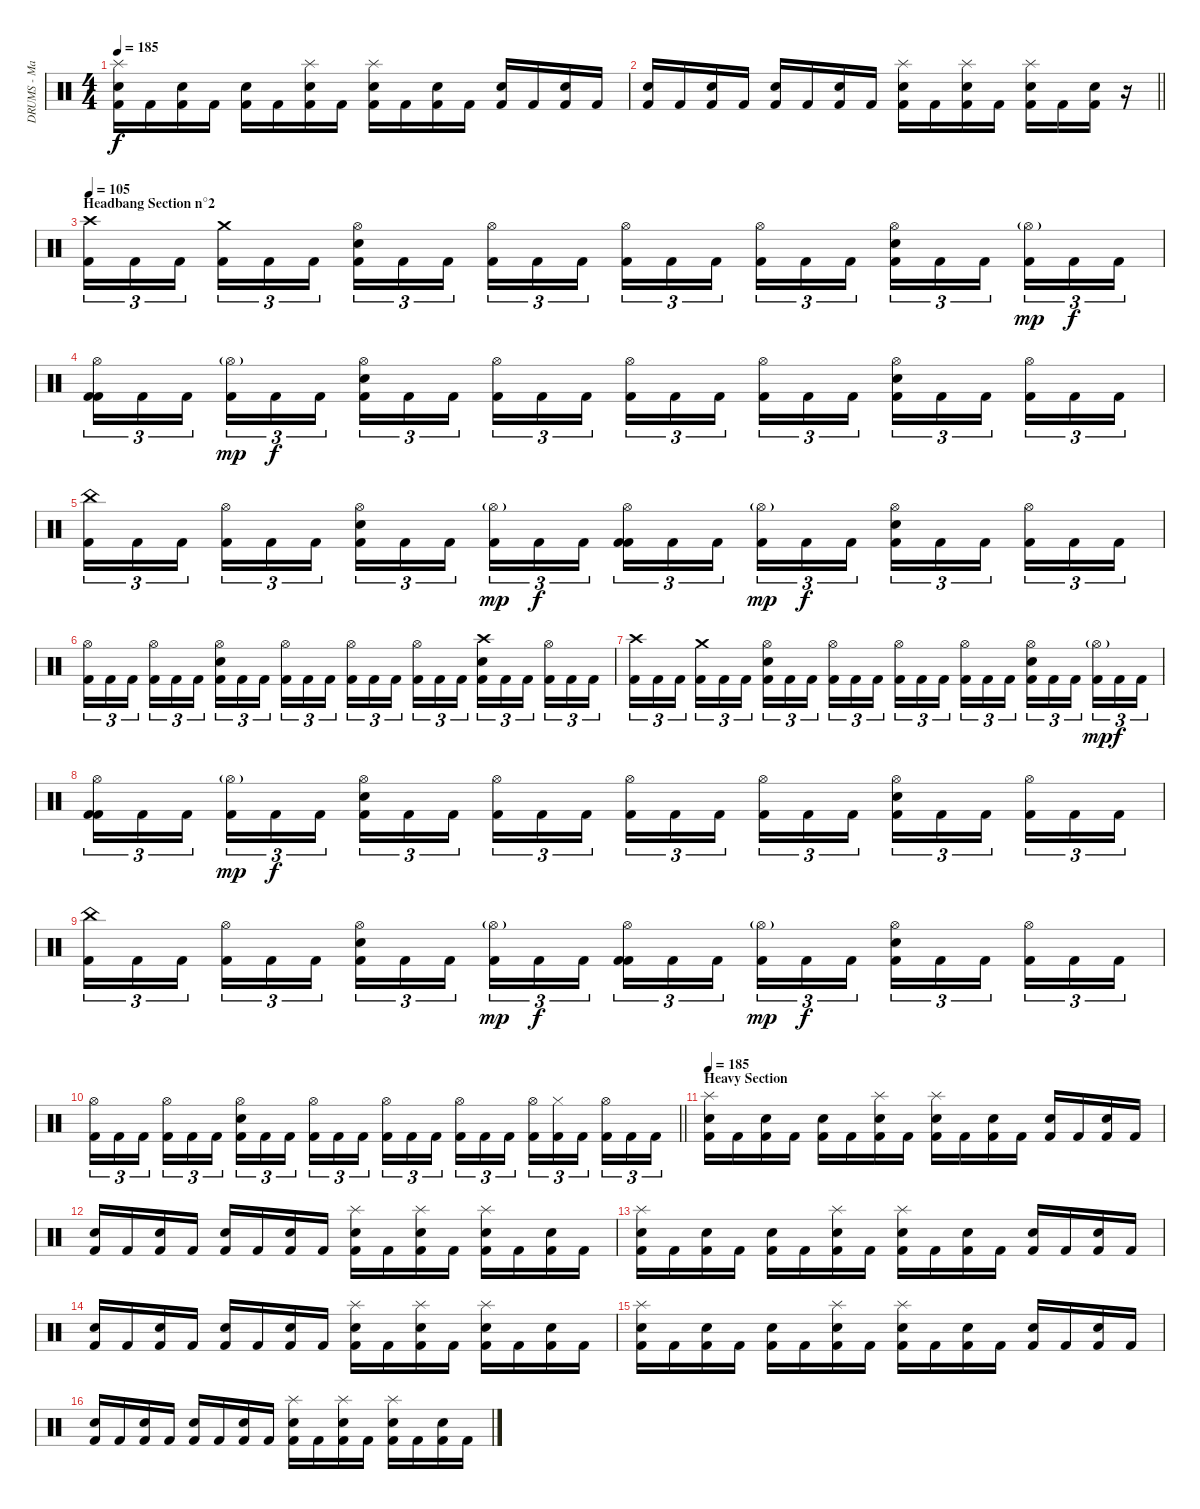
\track ("DRUMS - Mario Duplantier" "DRUMS - Ma") {instrument percussion}
\staff {score}
\articulation defaults
\ts (4 4)
\tempo 185
\clef neutral
\ks c
("Splash (hit)" "Electric Snare (hit)" "Kick (hit) 2").16{dy f} "Kick (hit) 2".16 ("Electric Snare (hit)" "Kick (hit) 2").16 "Kick (hit) 2".16 ("Electric Snare (hit)" "Kick (hit) 2").16 "Kick (hit) 2".16 ("Splash (hit)" "Electric Snare (hit)" "Kick (hit) 2").16 "Kick (hit) 2".16 ("Splash (hit)" "Electric Snare (hit)" "Kick (hit) 2").16 "Kick (hit) 2".16 ("Electric Snare (hit)" "Kick (hit) 2").16 "Kick (hit) 2".16 ("Electric Snare (hit)" "Kick (hit) 2").16 "Kick (hit) 2".16 ("Electric Snare (hit)" "Kick (hit) 2").16 "Kick (hit) 2".16 |
\barLineRight lightlight
("Electric Snare (hit)" "Kick (hit) 2").16 "Kick (hit) 2".16 ("Electric Snare (hit)" "Kick (hit) 2").16 "Kick (hit) 2".16 ("Electric Snare (hit)" "Kick (hit) 2").16 "Kick (hit) 2".16 ("Electric Snare (hit)" "Kick (hit) 2").16 "Kick (hit) 2".16 ("Splash (hit)" "Electric Snare (hit)" "Kick (hit) 2").16 "Kick (hit) 2".16 ("Splash (hit)" "Electric Snare (hit)" "Kick (hit) 2").16 "Kick (hit) 2".16 ("Splash (hit)" "Electric Snare (hit)" "Kick (hit) 2").16 "Kick (hit) 2".16 ("Electric Snare (hit)" "Kick (hit) 2").16 r.16 |
\section ("" "Headbang Section n°2")
\tempo 105
("Crash high (hit)" "Kick (hit) 2").16{tu (3 2)} "Kick (hit) 2".16{tu (3 2)} "Kick (hit) 2".16{tu (3 2) beam splitsecondary} ("Crash medium (hit)" "Kick (hit) 2").16{tu (3 2)} "Kick (hit) 2".16{tu (3 2)} "Kick (hit) 2".16{tu (3 2)} ("Hi-Hat (open)" "Electric Snare (hit)" "Kick (hit) 2").16{tu (3 2)} "Kick (hit) 2".16{tu (3 2)} "Kick (hit) 2".16{tu (3 2) beam splitsecondary} ("Hi-Hat (open)" "Kick (hit) 2").16{tu (3 2)} "Kick (hit) 2".16{tu (3 2)} "Kick (hit) 2".16{tu (3 2)} ("Hi-Hat (open)" "Kick (hit) 2").16{tu (3 2)} "Kick (hit) 2".16{tu (3 2)} "Kick (hit) 2".16{tu (3 2) beam splitsecondary} ("Hi-Hat (open)" "Kick (hit) 2").16{tu (3 2)} "Kick (hit) 2".16{tu (3 2)} "Kick (hit) 2".16{tu (3 2)} ("Hi-Hat (open)" "Electric Snare (hit)" "Kick (hit) 2").16{tu (3 2)} "Kick (hit) 2".16{tu (3 2)} "Kick (hit) 2".16{tu (3 2) beam splitsecondary} ("Hi-Hat (open)"{g} "Kick (hit) 2").16{tu (3 2) dy mp} "Kick (hit) 2".16{tu (3 2) dy f} "Kick (hit) 2".16{tu (3 2)} |
("Hi-Hat (open)" "Kick (hit) 2" "Kick (hit) 2").16{tu (3 2)} "Kick (hit) 2".16{tu (3 2)} "Kick (hit) 2".16{tu (3 2) beam splitsecondary} ("Hi-Hat (open)"{g} "Kick (hit) 2").16{tu (3 2) dy mp} "Kick (hit) 2".16{tu (3 2) dy f} "Kick (hit) 2".16{tu (3 2)} ("Hi-Hat (open)" "Electric Snare (hit)" "Kick (hit) 2").16{tu (3 2)} "Kick (hit) 2".16{tu (3 2)} "Kick (hit) 2".16{tu (3 2) beam splitsecondary} ("Hi-Hat (open)" "Kick (hit) 2").16{tu (3 2)} "Kick (hit) 2".16{tu (3 2)} "Kick (hit) 2".16{tu (3 2)} ("Hi-Hat (open)" "Kick (hit) 2").16{tu (3 2)} "Kick (hit) 2".16{tu (3 2)} "Kick (hit) 2".16{tu (3 2) beam splitsecondary} ("Hi-Hat (open)" "Kick (hit) 2").16{tu (3 2)} "Kick (hit) 2".16{tu (3 2)} "Kick (hit) 2".16{tu (3 2)} ("Hi-Hat (open)" "Electric Snare (hit)" "Kick (hit) 2").16{tu (3 2)} "Kick (hit) 2".16{tu (3 2)} "Kick (hit) 2".16{tu (3 2) beam splitsecondary} ("Hi-Hat (open)" "Kick (hit) 2").16{tu (3 2)} "Kick (hit) 2".16{tu (3 2)} "Kick (hit) 2".16{tu (3 2)} |
("China (hit)" "Kick (hit) 2").16{tu (3 2)} "Kick (hit) 2".16{tu (3 2)} "Kick (hit) 2".16{tu (3 2) beam splitsecondary} ("Hi-Hat (open)" "Kick (hit) 2").16{tu (3 2)} "Kick (hit) 2".16{tu (3 2)} "Kick (hit) 2".16{tu (3 2)} ("Hi-Hat (open)" "Electric Snare (hit)" "Kick (hit) 2").16{tu (3 2)} "Kick (hit) 2".16{tu (3 2)} "Kick (hit) 2".16{tu (3 2) beam splitsecondary} ("Hi-Hat (open)"{g} "Kick (hit) 2").16{tu (3 2) dy mp} "Kick (hit) 2".16{tu (3 2) dy f} "Kick (hit) 2".16{tu (3 2)} ("Hi-Hat (open)" "Kick (hit) 2" "Kick (hit) 2").16{tu (3 2)} "Kick (hit) 2".16{tu (3 2)} "Kick (hit) 2".16{tu (3 2) beam splitsecondary} ("Hi-Hat (open)"{g} "Kick (hit) 2").16{tu (3 2) dy mp} "Kick (hit) 2".16{tu (3 2) dy f} "Kick (hit) 2".16{tu (3 2)} ("Hi-Hat (open)" "Electric Snare (hit)" "Kick (hit) 2").16{tu (3 2)} "Kick (hit) 2".16{tu (3 2)} "Kick (hit) 2".16{tu (3 2) beam splitsecondary} ("Hi-Hat (open)" "Kick (hit) 2").16{tu (3 2)} "Kick (hit) 2".16{tu (3 2)} "Kick (hit) 2".16{tu (3 2)} |
("Hi-Hat (open)" "Kick (hit) 2").16{tu (3 2)} "Kick (hit) 2".16{tu (3 2)} "Kick (hit) 2".16{tu (3 2) beam splitsecondary} ("Hi-Hat (open)" "Kick (hit) 2").16{tu (3 2)} "Kick (hit) 2".16{tu (3 2)} "Kick (hit) 2".16{tu (3 2)} ("Hi-Hat (open)" "Electric Snare (hit)" "Kick (hit) 2").16{tu (3 2)} "Kick (hit) 2".16{tu (3 2)} "Kick (hit) 2".16{tu (3 2) beam splitsecondary} ("Hi-Hat (open)" "Kick (hit) 2").16{tu (3 2)} "Kick (hit) 2".16{tu (3 2)} "Kick (hit) 2".16{tu (3 2)} ("Hi-Hat (open)" "Kick (hit) 2").16{tu (3 2)} "Kick (hit) 2".16{tu (3 2)} "Kick (hit) 2".16{tu (3 2) beam splitsecondary} ("Hi-Hat (open)" "Kick (hit) 2").16{tu (3 2)} "Kick (hit) 2".16{tu (3 2)} "Kick (hit) 2".16{tu (3 2)} ("Crash high (hit)" "Electric Snare (hit)" "Kick (hit) 2").16{tu (3 2)} "Kick (hit) 2".16{tu (3 2)} "Kick (hit) 2".16{tu (3 2) beam splitsecondary} ("Hi-Hat (open)" "Kick (hit) 2").16{tu (3 2)} "Kick (hit) 2".16{tu (3 2)} "Kick (hit) 2".16{tu (3 2)} |
("Crash high (hit)" "Kick (hit) 2").16{tu (3 2)} "Kick (hit) 2".16{tu (3 2)} "Kick (hit) 2".16{tu (3 2) beam splitsecondary} ("Crash medium (hit)" "Kick (hit) 2").16{tu (3 2)} "Kick (hit) 2".16{tu (3 2)} "Kick (hit) 2".16{tu (3 2)} ("Hi-Hat (open)" "Electric Snare (hit)" "Kick (hit) 2").16{tu (3 2)} "Kick (hit) 2".16{tu (3 2)} "Kick (hit) 2".16{tu (3 2) beam splitsecondary} ("Hi-Hat (open)" "Kick (hit) 2").16{tu (3 2)} "Kick (hit) 2".16{tu (3 2)} "Kick (hit) 2".16{tu (3 2)} ("Hi-Hat (open)" "Kick (hit) 2").16{tu (3 2)} "Kick (hit) 2".16{tu (3 2)} "Kick (hit) 2".16{tu (3 2) beam splitsecondary} ("Hi-Hat (open)" "Kick (hit) 2").16{tu (3 2)} "Kick (hit) 2".16{tu (3 2)} "Kick (hit) 2".16{tu (3 2)} ("Hi-Hat (open)" "Electric Snare (hit)" "Kick (hit) 2").16{tu (3 2)} "Kick (hit) 2".16{tu (3 2)} "Kick (hit) 2".16{tu (3 2) beam splitsecondary} ("Hi-Hat (open)"{g} "Kick (hit) 2").16{tu (3 2) dy mp} "Kick (hit) 2".16{tu (3 2) dy f} "Kick (hit) 2".16{tu (3 2)} |
("Hi-Hat (open)" "Kick (hit) 2" "Kick (hit) 2").16{tu (3 2)} "Kick (hit) 2".16{tu (3 2)} "Kick (hit) 2".16{tu (3 2) beam splitsecondary} ("Hi-Hat (open)"{g} "Kick (hit) 2").16{tu (3 2) dy mp} "Kick (hit) 2".16{tu (3 2) dy f} "Kick (hit) 2".16{tu (3 2)} ("Hi-Hat (open)" "Electric Snare (hit)" "Kick (hit) 2").16{tu (3 2)} "Kick (hit) 2".16{tu (3 2)} "Kick (hit) 2".16{tu (3 2) beam splitsecondary} ("Hi-Hat (open)" "Kick (hit) 2").16{tu (3 2)} "Kick (hit) 2".16{tu (3 2)} "Kick (hit) 2".16{tu (3 2)} ("Hi-Hat (open)" "Kick (hit) 2").16{tu (3 2)} "Kick (hit) 2".16{tu (3 2)} "Kick (hit) 2".16{tu (3 2) beam splitsecondary} ("Hi-Hat (open)" "Kick (hit) 2").16{tu (3 2)} "Kick (hit) 2".16{tu (3 2)} "Kick (hit) 2".16{tu (3 2)} ("Hi-Hat (open)" "Electric Snare (hit)" "Kick (hit) 2").16{tu (3 2)} "Kick (hit) 2".16{tu (3 2)} "Kick (hit) 2".16{tu (3 2) beam splitsecondary} ("Hi-Hat (open)" "Kick (hit) 2").16{tu (3 2)} "Kick (hit) 2".16{tu (3 2)} "Kick (hit) 2".16{tu (3 2)} |
("China (hit)" "Kick (hit) 2").16{tu (3 2)} "Kick (hit) 2".16{tu (3 2)} "Kick (hit) 2".16{tu (3 2) beam splitsecondary} ("Hi-Hat (open)" "Kick (hit) 2").16{tu (3 2)} "Kick (hit) 2".16{tu (3 2)} "Kick (hit) 2".16{tu (3 2)} ("Hi-Hat (open)" "Electric Snare (hit)" "Kick (hit) 2").16{tu (3 2)} "Kick (hit) 2".16{tu (3 2)} "Kick (hit) 2".16{tu (3 2) beam splitsecondary} ("Hi-Hat (open)"{g} "Kick (hit) 2").16{tu (3 2) dy mp} "Kick (hit) 2".16{tu (3 2) dy f} "Kick (hit) 2".16{tu (3 2)} ("Hi-Hat (open)" "Kick (hit) 2" "Kick (hit) 2").16{tu (3 2)} "Kick (hit) 2".16{tu (3 2)} "Kick (hit) 2".16{tu (3 2) beam splitsecondary} ("Hi-Hat (open)"{g} "Kick (hit) 2").16{tu (3 2) dy mp} "Kick (hit) 2".16{tu (3 2) dy f} "Kick (hit) 2".16{tu (3 2)} ("Hi-Hat (open)" "Electric Snare (hit)" "Kick (hit) 2").16{tu (3 2)} "Kick (hit) 2".16{tu (3 2)} "Kick (hit) 2".16{tu (3 2) beam splitsecondary} ("Hi-Hat (open)" "Kick (hit) 2").16{tu (3 2)} "Kick (hit) 2".16{tu (3 2)} "Kick (hit) 2".16{tu (3 2)} |
\barLineRight lightlight
("Hi-Hat (open)" "Kick (hit) 2").16{tu (3 2)} "Kick (hit) 2".16{tu (3 2)} "Kick (hit) 2".16{tu (3 2) beam splitsecondary} ("Hi-Hat (open)" "Kick (hit) 2").16{tu (3 2)} "Kick (hit) 2".16{tu (3 2)} "Kick (hit) 2".16{tu (3 2)} ("Hi-Hat (open)" "Electric Snare (hit)" "Kick (hit) 2").16{tu (3 2)} "Kick (hit) 2".16{tu (3 2)} "Kick (hit) 2".16{tu (3 2) beam splitsecondary} ("Hi-Hat (open)" "Kick (hit) 2").16{tu (3 2)} "Kick (hit) 2".16{tu (3 2)} "Kick (hit) 2".16{tu (3 2)} ("Hi-Hat (open)" "Kick (hit) 2").16{tu (3 2)} "Kick (hit) 2".16{tu (3 2)} "Kick (hit) 2".16{tu (3 2) beam splitsecondary} ("Hi-Hat (open)" "Kick (hit) 2").16{tu (3 2)} "Kick (hit) 2".16{tu (3 2)} "Kick (hit) 2".16{tu (3 2)} ("Hi-Hat (open)" "Kick (hit) 2").16{tu (3 2)} ("Hi-Hat (closed)" "Kick (hit) 2").16{tu (3 2)} "Kick (hit) 2".16{tu (3 2) beam splitsecondary} ("Hi-Hat (open)" "Kick (hit) 2").16{tu (3 2)} "Kick (hit) 2".16{tu (3 2)} "Kick (hit) 2".16{tu (3 2)} |
\section ("" "Heavy Section")
\tempo 185
("Splash (hit)" "Electric Snare (hit)" "Kick (hit) 2").16 "Kick (hit) 2".16 ("Electric Snare (hit)" "Kick (hit) 2").16 "Kick (hit) 2".16 ("Electric Snare (hit)" "Kick (hit) 2").16 "Kick (hit) 2".16 ("Splash (hit)" "Electric Snare (hit)" "Kick (hit) 2").16 "Kick (hit) 2".16 ("Splash (hit)" "Electric Snare (hit)" "Kick (hit) 2").16 "Kick (hit) 2".16 ("Electric Snare (hit)" "Kick (hit) 2").16 "Kick (hit) 2".16 ("Electric Snare (hit)" "Kick (hit) 2").16 "Kick (hit) 2".16 ("Electric Snare (hit)" "Kick (hit) 2").16 "Kick (hit) 2".16 |
("Electric Snare (hit)" "Kick (hit) 2").16 "Kick (hit) 2".16 ("Electric Snare (hit)" "Kick (hit) 2").16 "Kick (hit) 2".16 ("Electric Snare (hit)" "Kick (hit) 2").16 "Kick (hit) 2".16 ("Electric Snare (hit)" "Kick (hit) 2").16 "Kick (hit) 2".16 ("Splash (hit)" "Electric Snare (hit)" "Kick (hit) 2").16 "Kick (hit) 2".16 ("Splash (hit)" "Electric Snare (hit)" "Kick (hit) 2").16 "Kick (hit) 2".16 ("Splash (hit)" "Electric Snare (hit)" "Kick (hit) 2").16 "Kick (hit) 2".16 ("Electric Snare (hit)" "Kick (hit) 2").16 "Kick (hit) 2".16 |
("Splash (hit)" "Electric Snare (hit)" "Kick (hit) 2").16 "Kick (hit) 2".16 ("Electric Snare (hit)" "Kick (hit) 2").16 "Kick (hit) 2".16 ("Electric Snare (hit)" "Kick (hit) 2").16 "Kick (hit) 2".16 ("Splash (hit)" "Electric Snare (hit)" "Kick (hit) 2").16 "Kick (hit) 2".16 ("Splash (hit)" "Electric Snare (hit)" "Kick (hit) 2").16 "Kick (hit) 2".16 ("Electric Snare (hit)" "Kick (hit) 2").16 "Kick (hit) 2".16 ("Electric Snare (hit)" "Kick (hit) 2").16 "Kick (hit) 2".16 ("Electric Snare (hit)" "Kick (hit) 2").16 "Kick (hit) 2".16 |
("Electric Snare (hit)" "Kick (hit) 2").16 "Kick (hit) 2".16 ("Electric Snare (hit)" "Kick (hit) 2").16 "Kick (hit) 2".16 ("Electric Snare (hit)" "Kick (hit) 2").16 "Kick (hit) 2".16 ("Electric Snare (hit)" "Kick (hit) 2").16 "Kick (hit) 2".16 ("Splash (hit)" "Electric Snare (hit)" "Kick (hit) 2").16 "Kick (hit) 2".16 ("Splash (hit)" "Electric Snare (hit)" "Kick (hit) 2").16 "Kick (hit) 2".16 ("Splash (hit)" "Electric Snare (hit)" "Kick (hit) 2").16 "Kick (hit) 2".16 ("Electric Snare (hit)" "Kick (hit) 2").16 "Kick (hit) 2".16 |
("Splash (hit)" "Electric Snare (hit)" "Kick (hit) 2").16 "Kick (hit) 2".16 ("Electric Snare (hit)" "Kick (hit) 2").16 "Kick (hit) 2".16 ("Electric Snare (hit)" "Kick (hit) 2").16 "Kick (hit) 2".16 ("Splash (hit)" "Electric Snare (hit)" "Kick (hit) 2").16 "Kick (hit) 2".16 ("Splash (hit)" "Electric Snare (hit)" "Kick (hit) 2").16 "Kick (hit) 2".16 ("Electric Snare (hit)" "Kick (hit) 2").16 "Kick (hit) 2".16 ("Electric Snare (hit)" "Kick (hit) 2").16 "Kick (hit) 2".16 ("Electric Snare (hit)" "Kick (hit) 2").16 "Kick (hit) 2".16 |
("Electric Snare (hit)" "Kick (hit) 2").16 "Kick (hit) 2".16 ("Electric Snare (hit)" "Kick (hit) 2").16 "Kick (hit) 2".16 ("Electric Snare (hit)" "Kick (hit) 2").16 "Kick (hit) 2".16 ("Electric Snare (hit)" "Kick (hit) 2").16 "Kick (hit) 2".16 ("Splash (hit)" "Electric Snare (hit)" "Kick (hit) 2").16 "Kick (hit) 2".16 ("Splash (hit)" "Electric Snare (hit)" "Kick (hit) 2").16 "Kick (hit) 2".16 ("Splash (hit)" "Electric Snare (hit)" "Kick (hit) 2").16 "Kick (hit) 2".16 ("Electric Snare (hit)" "Kick (hit) 2").16 "Kick (hit) 2".16
